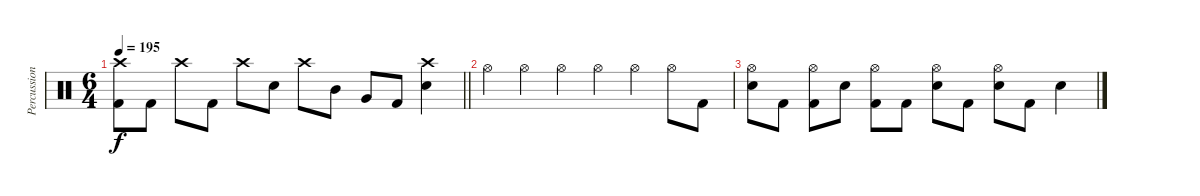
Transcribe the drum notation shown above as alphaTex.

\track ("Percussion" "Percussion") {instrument percussion}
\staff {score}
\articulation defaults
\ts (6 4)
\tempo 195
\clef neutral
\barLineRight lightlight
\ks c
("Crash high (hit)" "Kick (hit) 2").8{dy f} "Kick (hit) 2".8 "Crash high (hit)".8 "Kick (hit) 2".8 "Crash high (hit)".8 "Snare (hit) 2".8 "Crash high (hit)".8 "Mid Tom (hit)".8 "Very Low Tom (hit)".8 "Kick (hit) 2".8 ("Crash high (hit)" "Snare (hit) 2").4 |
"Hi-Hat (open)".4 "Hi-Hat (open)".4 "Hi-Hat (open)".4 "Hi-Hat (open)".4 "Hi-Hat (open)".4 "Hi-Hat (open)".8 "Kick (hit) 2".8 |
("Hi-Hat (open)" "Snare (hit) 2").8 "Kick (hit) 2".8 ("Hi-Hat (open)" "Kick (hit) 2").8 "Snare (hit) 2".8 ("Hi-Hat (open)" "Kick (hit) 2").8 "Kick (hit) 2".8 ("Hi-Hat (open)" "Snare (hit) 2").8 "Kick (hit) 2".8 ("Hi-Hat (open)" "Snare (hit) 2").8 "Kick (hit) 2".8 "Snare (hit) 2".4
